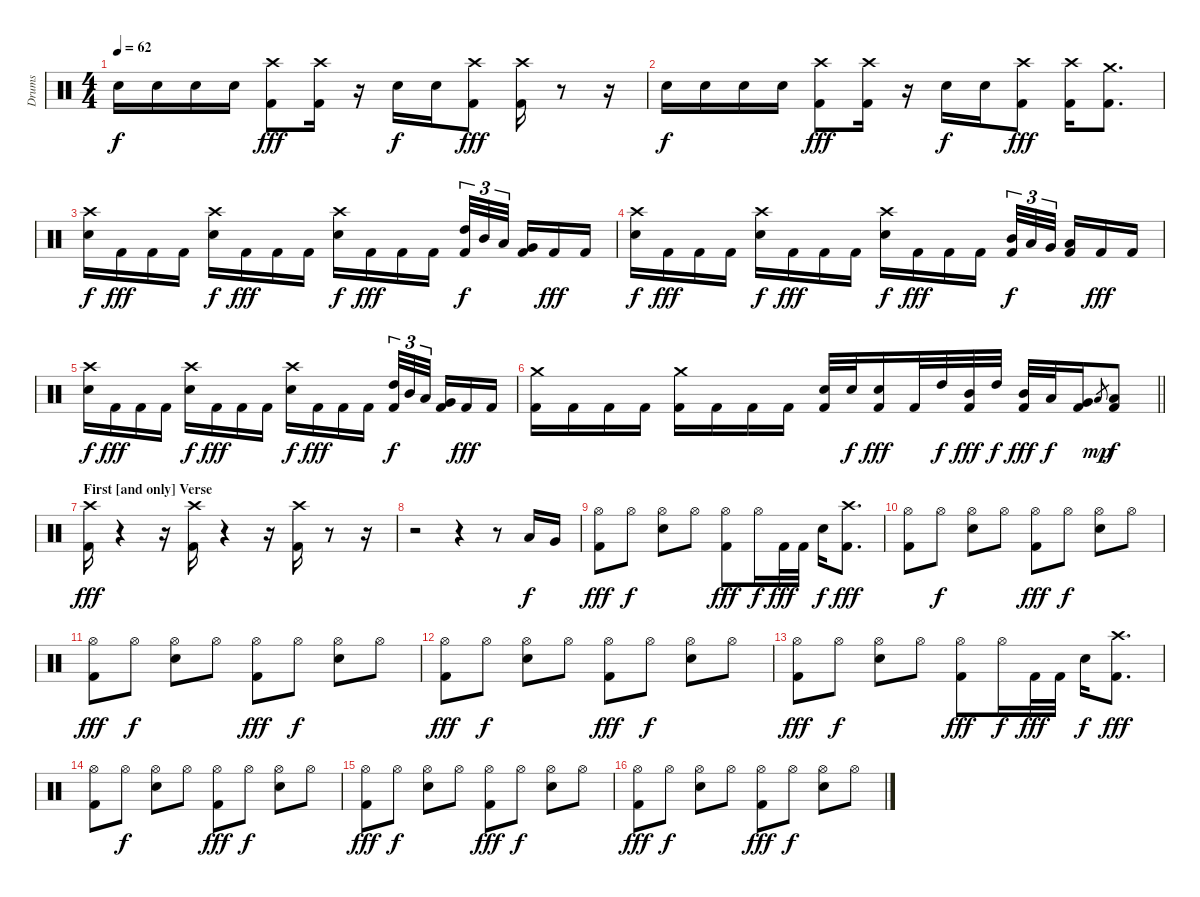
\track ("Drums" "Drums") {instrument percussion}
\staff {score}
\articulation defaults
\ts (4 4)
\tempo 62
\clef neutral
\ks c "Snare (hit) 2".16{dy f} "Snare (hit) 2".16 "Snare (hit) 2".16 "Snare (hit) 2".16
("Crash high (hit)" "Kick (hit) 2").8{dy fff} ("Crash high (hit)" "Kick (hit) 2").16 r.16{volume 0} "Snare (hit) 2".16{dy f volume 11} "Snare (hit) 2".16 ("Crash high (hit)" "Kick (hit) 2").8{dy fff} ("Crash high (hit)" "Kick (hit) 2").16 r.8{volume 0} r.16 |
"Snare (hit) 2".16{dy f volume 11} "Snare (hit) 2".16 "Snare (hit) 2".16 "Snare (hit) 2".16 ("Crash high (hit)" "Kick (hit) 2").8{dy fff} ("Crash high (hit)" "Kick (hit) 2").16 r.16{volume 0} "Snare (hit) 2".16{dy f volume 11} "Snare (hit) 2".16 ("Crash high (hit)" "Kick (hit) 2").8{dy fff} ("Crash high (hit)" "Kick (hit) 2").16 ("Crash medium (hit)" "Kick (hit) 2").8{d} |
("Crash high (hit)" "Snare (hit) 2").16{dy f} "Kick (hit) 2".16{dy fff} "Kick (hit) 2".16 "Kick (hit) 2".16 ("Crash high (hit)" "Snare (hit) 2").16{dy f} "Kick (hit) 2".16{dy fff} "Kick (hit) 2".16 "Kick (hit) 2".16 ("Crash high (hit)" "Snare (hit) 2").16{dy f} "Kick (hit) 2".16{dy fff} "Kick (hit) 2".16 "Kick (hit) 2".16 ("High Tom (hit)" "Kick (hit) 2").32{tu (3 2) dy f} "Mid Tom (hit)".32{tu (3 2)} "Low Tom (hit)".32{tu (3 2) beam splitsecondary} ("Very Low Tom (hit)" "Kick (hit) 2").16 "Kick (hit) 2".16{dy fff} "Kick (hit) 2".16 |
("Crash high (hit)" "Snare (hit) 2").16{dy f} "Kick (hit) 2".16{dy fff} "Kick (hit) 2".16 "Kick (hit) 2".16 ("Crash high (hit)" "Snare (hit) 2").16{dy f} "Kick (hit) 2".16{dy fff} "Kick (hit) 2".16 "Kick (hit) 2".16 ("Crash high (hit)" "Snare (hit) 2").16{dy f} "Kick (hit) 2".16{dy fff} "Kick (hit) 2".16 "Kick (hit) 2".16 ("Mid Tom (hit)" "Kick (hit) 2").32{tu (3 2) dy f} "Low Tom (hit)".32{tu (3 2)} "Very Low Tom (hit)".32{tu (3 2) beam splitsecondary} ("Low Floor Tom (hit)" "Kick (hit) 2").16 "Kick (hit) 2".16{dy fff} "Kick (hit) 2".16 |
("Crash high (hit)" "Snare (hit) 2").16{dy f} "Kick (hit) 2".16{dy fff} "Kick (hit) 2".16 "Kick (hit) 2".16 ("Crash high (hit)" "Snare (hit) 2").16{dy f} "Kick (hit) 2".16{dy fff} "Kick (hit) 2".16 "Kick (hit) 2".16 ("Crash high (hit)" "Snare (hit) 2").16{dy f} "Kick (hit) 2".16{dy fff} "Kick (hit) 2".16 "Kick (hit) 2".16 ("High Tom (hit)" "Kick (hit) 2").32{tu (3 2) dy f} "Mid Tom (hit)".32{tu (3 2)} "Low Tom (hit)".32{tu (3 2) beam splitsecondary} ("Very Low Tom (hit)" "Kick (hit) 2").16 "Kick (hit) 2".16{dy fff} "Kick (hit) 2".16 |
\barLineRight lightlight
("Crash medium (hit)" "Kick (hit) 2").16 "Kick (hit) 2".16 "Kick (hit) 2".16 "Kick (hit) 2".16 ("Crash medium (hit)" "Kick (hit) 2").16 "Kick (hit) 2".16 "Kick (hit) 2".16 "Kick (hit) 2".16 ("Snare (hit) 2" "Kick (hit) 2").32 "Snare (hit) 2".32{dy f} ("Snare (hit) 2" "Kick (hit) 2").16{dy fff} "Kick (hit) 2".32 "High Tom (hit)".32{dy f} ("Mid Tom (hit)" "Kick (hit) 2").32{dy fff} "High Tom (hit)".32{dy f} ("Mid Tom (hit)" "Kick (hit) 2").32{dy fff} "Low Tom (hit)".32{dy f} ("Very Low Tom (hit)" "Kick (hit) 2").16 "Low Floor Tom (hit)".8{gr dy mp} ("Low Floor Tom (hit)" "Kick (hit) 2").8{dy f} |
\section ("" "First [and only] Verse")
("Crash high (hit)" "Kick (hit) 2").16{dy fff} r.4{volume 0} r.16 ("Crash high (hit)" "Kick (hit) 2").16{volume 11} r.4{volume 0} r.16 ("Crash high (hit)" "Kick (hit) 2").16{volume 11} r.8{volume 0} r.16 |
r.2 r.4 r.8 "Low Tom (hit)".16{dy f volume 11} "Very Low Tom (hit)".16 |
("Hi-Hat (open)" "Kick (hit) 2").8{dy fff} "Hi-Hat (open)".8{dy f} ("Hi-Hat (open)" "Snare (hit) 2").8 "Hi-Hat (open)".8 ("Hi-Hat (open)" "Kick (hit) 2").8{dy fff} "Hi-Hat (open)".16{dy f} "Kick (hit) 2".32{dy fff} "Kick (hit) 2".32 "Snare (hit) 2".16{dy f} ("Crash high (hit)" "Kick (hit) 2").8{d dy fff} |
("Hi-Hat (open)" "Kick (hit) 2").8 "Hi-Hat (open)".8{dy f} ("Hi-Hat (open)" "Snare (hit) 2").8 "Hi-Hat (open)".8 ("Hi-Hat (open)" "Kick (hit) 2").8{dy fff} "Hi-Hat (open)".8{dy f} ("Hi-Hat (open)" "Snare (hit) 2").8 "Hi-Hat (open)".8 |
("Hi-Hat (open)" "Kick (hit) 2").8{dy fff} "Hi-Hat (open)".8{dy f} ("Hi-Hat (open)" "Snare (hit) 2").8 "Hi-Hat (open)".8 ("Hi-Hat (open)" "Kick (hit) 2").8{dy fff} "Hi-Hat (open)".8{dy f} ("Hi-Hat (open)" "Snare (hit) 2").8 "Hi-Hat (open)".8 |
("Hi-Hat (open)" "Kick (hit) 2").8{dy fff} "Hi-Hat (open)".8{dy f} ("Hi-Hat (open)" "Snare (hit) 2").8 "Hi-Hat (open)".8 ("Hi-Hat (open)" "Kick (hit) 2").8{dy fff} "Hi-Hat (open)".8{dy f} ("Hi-Hat (open)" "Snare (hit) 2").8 "Hi-Hat (open)".8 |
("Hi-Hat (open)" "Kick (hit) 2").8{dy fff} "Hi-Hat (open)".8{dy f} ("Hi-Hat (open)" "Snare (hit) 2").8 "Hi-Hat (open)".8 ("Hi-Hat (open)" "Kick (hit) 2").8{dy fff} "Hi-Hat (open)".16{dy f} "Kick (hit) 2".32{dy fff} "Kick (hit) 2".32 "Snare (hit) 2".16{dy f} ("Crash high (hit)" "Kick (hit) 2").8{d dy fff} |
("Hi-Hat (open)" "Kick (hit) 2").8 "Hi-Hat (open)".8{dy f} ("Hi-Hat (open)" "Snare (hit) 2").8 "Hi-Hat (open)".8 ("Hi-Hat (open)" "Kick (hit) 2").8{dy fff} "Hi-Hat (open)".8{dy f} ("Hi-Hat (open)" "Snare (hit) 2").8 "Hi-Hat (open)".8 |
("Hi-Hat (open)" "Kick (hit) 2").8{dy fff} "Hi-Hat (open)".8{dy f} ("Hi-Hat (open)" "Snare (hit) 2").8 "Hi-Hat (open)".8 ("Hi-Hat (open)" "Kick (hit) 2").8{dy fff} "Hi-Hat (open)".8{dy f} ("Hi-Hat (open)" "Snare (hit) 2").8 "Hi-Hat (open)".8 |
("Hi-Hat (open)" "Kick (hit) 2").8{dy fff} "Hi-Hat (open)".8{dy f} ("Hi-Hat (open)" "Snare (hit) 2").8 "Hi-Hat (open)".8 ("Hi-Hat (open)" "Kick (hit) 2").8{dy fff} "Hi-Hat (open)".8{dy f} ("Hi-Hat (open)" "Snare (hit) 2").8 "Hi-Hat (open)".8
